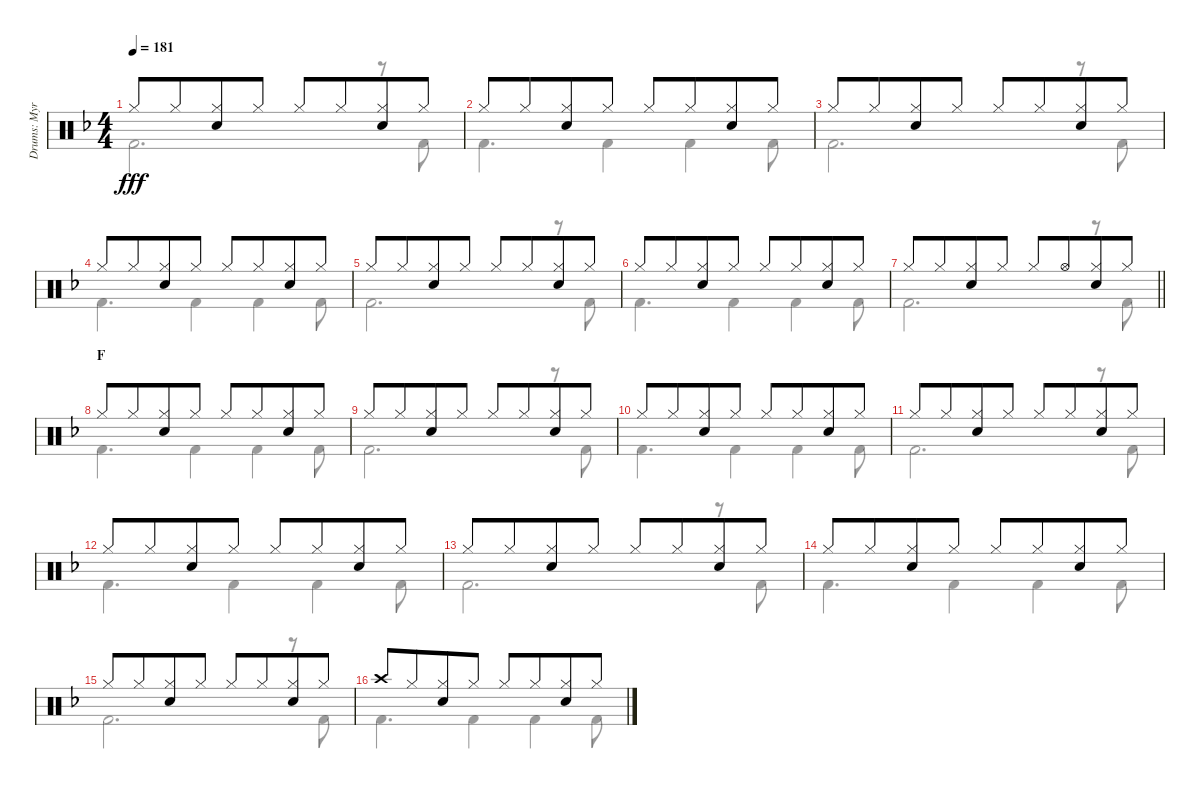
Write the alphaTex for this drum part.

\track ("Drums: Myron" "Drums: Myr") {instrument percussion}
\staff {score}
\articulation defaults
\voice
\ts (4 4)
\tempo 181
\clef neutral
\ks f "Hi-Hat (closed)".8{dy fff} "Hi-Hat (closed)".8{beam merge}
("Hi-Hat (closed)" "Electric Snare (hit)").8 "Hi-Hat (closed)".8 "Hi-Hat (closed)".8 "Hi-Hat (closed)".8{beam merge} ("Hi-Hat (closed)" "Electric Snare (hit)").8 "Hi-Hat (closed)".8 |
"Hi-Hat (closed)".8 "Hi-Hat (closed)".8{beam merge} ("Hi-Hat (closed)" "Electric Snare (hit)").8 "Hi-Hat (closed)".8 "Hi-Hat (closed)".8 "Hi-Hat (closed)".8{beam merge} ("Hi-Hat (closed)" "Electric Snare (hit)").8 "Hi-Hat (closed)".8 |
"Hi-Hat (closed)".8 "Hi-Hat (closed)".8{beam merge} ("Hi-Hat (closed)" "Electric Snare (hit)").8 "Hi-Hat (closed)".8 "Hi-Hat (closed)".8 "Hi-Hat (closed)".8{beam merge} ("Hi-Hat (closed)" "Electric Snare (hit)").8 "Hi-Hat (closed)".8 |
"Hi-Hat (closed)".8 "Hi-Hat (closed)".8{beam merge} ("Hi-Hat (closed)" "Electric Snare (hit)").8 "Hi-Hat (closed)".8 "Hi-Hat (closed)".8 "Hi-Hat (closed)".8{beam merge} ("Hi-Hat (closed)" "Electric Snare (hit)").8 "Hi-Hat (closed)".8 |
"Hi-Hat (closed)".8 "Hi-Hat (closed)".8{beam merge} ("Hi-Hat (closed)" "Electric Snare (hit)").8 "Hi-Hat (closed)".8 "Hi-Hat (closed)".8 "Hi-Hat (closed)".8{beam merge} ("Hi-Hat (closed)" "Electric Snare (hit)").8 "Hi-Hat (closed)".8 |
"Hi-Hat (closed)".8 "Hi-Hat (closed)".8{beam merge} ("Hi-Hat (closed)" "Electric Snare (hit)").8 "Hi-Hat (closed)".8 "Hi-Hat (closed)".8 "Hi-Hat (closed)".8{beam merge} ("Hi-Hat (closed)" "Electric Snare (hit)").8 "Hi-Hat (closed)".8 |
\barLineRight lightlight "Hi-Hat (closed)".8 "Hi-Hat (closed)".8{beam merge}
("Hi-Hat (closed)" "Electric Snare (hit)").8 "Hi-Hat (closed)".8 "Hi-Hat (closed)".8 "Hi-Hat (open)".8{beam merge} ("Hi-Hat (closed)" "Electric Snare (hit)").8 "Hi-Hat (closed)".8 |
\section ("" "F")
"Hi-Hat (closed)".8 "Hi-Hat (closed)".8{beam merge} ("Hi-Hat (closed)" "Electric Snare (hit)").8 "Hi-Hat (closed)".8 "Hi-Hat (closed)".8 "Hi-Hat (closed)".8{beam merge} ("Hi-Hat (closed)" "Electric Snare (hit)").8 "Hi-Hat (closed)".8 |
"Hi-Hat (closed)".8 "Hi-Hat (closed)".8{beam merge} ("Hi-Hat (closed)" "Electric Snare (hit)").8 "Hi-Hat (closed)".8 "Hi-Hat (closed)".8 "Hi-Hat (closed)".8{beam merge} ("Hi-Hat (closed)" "Electric Snare (hit)").8 "Hi-Hat (closed)".8 |
"Hi-Hat (closed)".8 "Hi-Hat (closed)".8{beam merge} ("Hi-Hat (closed)" "Electric Snare (hit)").8 "Hi-Hat (closed)".8 "Hi-Hat (closed)".8 "Hi-Hat (closed)".8{beam merge} ("Hi-Hat (closed)" "Electric Snare (hit)").8 "Hi-Hat (closed)".8 |
"Hi-Hat (closed)".8 "Hi-Hat (closed)".8{beam merge} ("Hi-Hat (closed)" "Electric Snare (hit)").8 "Hi-Hat (closed)".8 "Hi-Hat (closed)".8 "Hi-Hat (closed)".8{beam merge} ("Hi-Hat (closed)" "Electric Snare (hit)").8 "Hi-Hat (closed)".8 |
"Hi-Hat (closed)".8 "Hi-Hat (closed)".8{beam merge} ("Hi-Hat (closed)" "Electric Snare (hit)").8 "Hi-Hat (closed)".8 "Hi-Hat (closed)".8 "Hi-Hat (closed)".8{beam merge} ("Hi-Hat (closed)" "Electric Snare (hit)").8 "Hi-Hat (closed)".8 |
"Hi-Hat (closed)".8 "Hi-Hat (closed)".8{beam merge} ("Hi-Hat (closed)" "Electric Snare (hit)").8 "Hi-Hat (closed)".8 "Hi-Hat (closed)".8 "Hi-Hat (closed)".8{beam merge} ("Hi-Hat (closed)" "Electric Snare (hit)").8 "Hi-Hat (closed)".8 |
"Hi-Hat (closed)".8 "Hi-Hat (closed)".8{beam merge} ("Hi-Hat (closed)" "Electric Snare (hit)").8 "Hi-Hat (closed)".8 "Hi-Hat (closed)".8 "Hi-Hat (closed)".8{beam merge} ("Hi-Hat (closed)" "Electric Snare (hit)").8 "Hi-Hat (closed)".8 |
"Hi-Hat (closed)".8 "Hi-Hat (closed)".8{beam merge} ("Hi-Hat (closed)" "Electric Snare (hit)").8 "Hi-Hat (closed)".8 "Hi-Hat (closed)".8 "Hi-Hat (closed)".8{beam merge} ("Hi-Hat (closed)" "Electric Snare (hit)").8 "Hi-Hat (closed)".8 |
"Crash high (hit)".8 "Hi-Hat (closed)".8{beam merge} ("Hi-Hat (closed)" "Electric Snare (hit)").8 "Hi-Hat (closed)".8 "Hi-Hat (closed)".8 "Hi-Hat (closed)".8{beam merge} ("Hi-Hat (closed)" "Electric Snare (hit)").8 "Hi-Hat (closed)".8
\voice
\clef neutral
\ottava regular
\simile none
\ks f "Kick (hit) 2".2{d dy fff}
r.8 "Kick (hit) 2".8 |
"Kick (hit) 2".4{d} "Kick (hit) 2".4 "Kick (hit) 2".4 "Kick (hit) 2".8 |
"Kick (hit) 2".2{d} r.8 "Kick (hit) 2".8 |
"Kick (hit) 2".4{d} "Kick (hit) 2".4 "Kick (hit) 2".4 "Kick (hit) 2".8 |
"Kick (hit) 2".2{d} r.8 "Kick (hit) 2".8 |
"Kick (hit) 2".4{d} "Kick (hit) 2".4 "Kick (hit) 2".4 "Kick (hit) 2".8 |
\barLineRight lightlight "Kick (hit) 2".2{d}
r.8 "Kick (hit) 2".8 |
"Kick (hit) 2".4{d} "Kick (hit) 2".4 "Kick (hit) 2".4 "Kick (hit) 2".8 |
"Kick (hit) 2".2{d} r.8 "Kick (hit) 2".8 |
"Kick (hit) 2".4{d} "Kick (hit) 2".4 "Kick (hit) 2".4 "Kick (hit) 2".8 |
"Kick (hit) 2".2{d} r.8 "Kick (hit) 2".8 |
"Kick (hit) 2".4{d} "Kick (hit) 2".4 "Kick (hit) 2".4 "Kick (hit) 2".8 |
"Kick (hit) 2".2{d} r.8 "Kick (hit) 2".8 |
"Kick (hit) 2".4{d} "Kick (hit) 2".4 "Kick (hit) 2".4 "Kick (hit) 2".8 |
"Kick (hit) 2".2{d} r.8 "Kick (hit) 2".8 |
"Kick (hit) 2".4{d} "Kick (hit) 2".4 "Kick (hit) 2".4 "Kick (hit) 2".8
